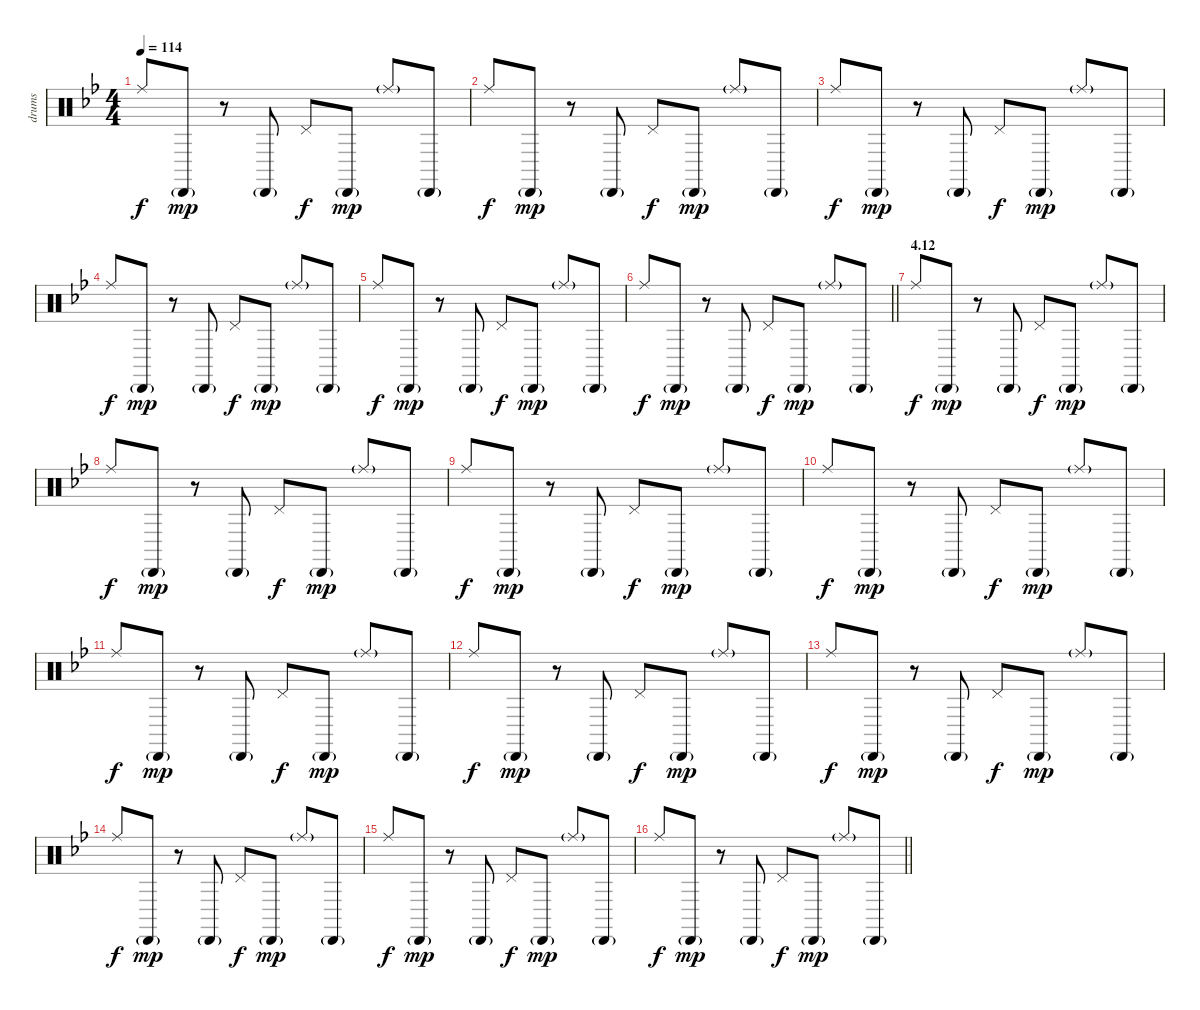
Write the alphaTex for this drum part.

\track ("drums" "drums") {instrument percussion}
\staff {score}
\articulation defaults
\ts (4 4)
\tempo 114
\clef neutral
\ks bb "Ride (middle)".8{dy f} "Cabasa (hit)"{g}.8{dy mp}
r.8 "Cabasa (hit)"{g}.8 "Pedal Hi-Hat (hit)".8{dy f} "Cabasa (hit)"{g}.8{dy mp} "Ride (middle)"{g}.8 "Cabasa (hit)"{g}.8 |
"Ride (middle)".8{dy f} "Cabasa (hit)"{g}.8{dy mp} r.8 "Cabasa (hit)"{g}.8 "Pedal Hi-Hat (hit)".8{dy f} "Cabasa (hit)"{g}.8{dy mp} "Ride (middle)"{g}.8 "Cabasa (hit)"{g}.8 |
"Ride (middle)".8{dy f} "Cabasa (hit)"{g}.8{dy mp} r.8 "Cabasa (hit)"{g}.8 "Pedal Hi-Hat (hit)".8{dy f} "Cabasa (hit)"{g}.8{dy mp} "Ride (middle)"{g}.8 "Cabasa (hit)"{g}.8 |
"Ride (middle)".8{dy f} "Cabasa (hit)"{g}.8{dy mp} r.8 "Cabasa (hit)"{g}.8 "Pedal Hi-Hat (hit)".8{dy f} "Cabasa (hit)"{g}.8{dy mp} "Ride (middle)"{g}.8 "Cabasa (hit)"{g}.8 |
"Ride (middle)".8{dy f} "Cabasa (hit)"{g}.8{dy mp} r.8 "Cabasa (hit)"{g}.8 "Pedal Hi-Hat (hit)".8{dy f} "Cabasa (hit)"{g}.8{dy mp} "Ride (middle)"{g}.8 "Cabasa (hit)"{g}.8 |
\barLineRight lightlight "Ride (middle)".8{dy f} "Cabasa (hit)"{g}.8{dy mp}
r.8 "Cabasa (hit)"{g}.8 "Pedal Hi-Hat (hit)".8{dy f} "Cabasa (hit)"{g}.8{dy mp} "Ride (middle)"{g}.8 "Cabasa (hit)"{g}.8 |
\section ("" "4.12")
"Ride (middle)".8{dy f} "Cabasa (hit)"{g}.8{dy mp} r.8 "Cabasa (hit)"{g}.8 "Pedal Hi-Hat (hit)".8{dy f} "Cabasa (hit)"{g}.8{dy mp} "Ride (middle)"{g}.8 "Cabasa (hit)"{g}.8 |
"Ride (middle)".8{dy f} "Cabasa (hit)"{g}.8{dy mp} r.8 "Cabasa (hit)"{g}.8 "Pedal Hi-Hat (hit)".8{dy f} "Cabasa (hit)"{g}.8{dy mp} "Ride (middle)"{g}.8 "Cabasa (hit)"{g}.8 |
"Ride (middle)".8{dy f} "Cabasa (hit)"{g}.8{dy mp} r.8 "Cabasa (hit)"{g}.8 "Pedal Hi-Hat (hit)".8{dy f} "Cabasa (hit)"{g}.8{dy mp} "Ride (middle)"{g}.8 "Cabasa (hit)"{g}.8 |
"Ride (middle)".8{dy f} "Cabasa (hit)"{g}.8{dy mp} r.8 "Cabasa (hit)"{g}.8 "Pedal Hi-Hat (hit)".8{dy f} "Cabasa (hit)"{g}.8{dy mp} "Ride (middle)"{g}.8 "Cabasa (hit)"{g}.8 |
"Ride (middle)".8{dy f} "Cabasa (hit)"{g}.8{dy mp} r.8 "Cabasa (hit)"{g}.8 "Pedal Hi-Hat (hit)".8{dy f} "Cabasa (hit)"{g}.8{dy mp} "Ride (middle)"{g}.8 "Cabasa (hit)"{g}.8 |
"Ride (middle)".8{dy f} "Cabasa (hit)"{g}.8{dy mp} r.8 "Cabasa (hit)"{g}.8 "Pedal Hi-Hat (hit)".8{dy f} "Cabasa (hit)"{g}.8{dy mp} "Ride (middle)"{g}.8 "Cabasa (hit)"{g}.8 |
"Ride (middle)".8{dy f} "Cabasa (hit)"{g}.8{dy mp} r.8 "Cabasa (hit)"{g}.8 "Pedal Hi-Hat (hit)".8{dy f} "Cabasa (hit)"{g}.8{dy mp} "Ride (middle)"{g}.8 "Cabasa (hit)"{g}.8 |
"Ride (middle)".8{dy f} "Cabasa (hit)"{g}.8{dy mp} r.8 "Cabasa (hit)"{g}.8 "Pedal Hi-Hat (hit)".8{dy f} "Cabasa (hit)"{g}.8{dy mp} "Ride (middle)"{g}.8 "Cabasa (hit)"{g}.8 |
"Ride (middle)".8{dy f} "Cabasa (hit)"{g}.8{dy mp} r.8 "Cabasa (hit)"{g}.8 "Pedal Hi-Hat (hit)".8{dy f} "Cabasa (hit)"{g}.8{dy mp} "Ride (middle)"{g}.8 "Cabasa (hit)"{g}.8 |
\barLineRight lightlight "Ride (middle)".8{dy f} "Cabasa (hit)"{g}.8{dy mp}
r.8 "Cabasa (hit)"{g}.8 "Pedal Hi-Hat (hit)".8{dy f} "Cabasa (hit)"{g}.8{dy mp} "Ride (middle)"{g}.8 "Cabasa (hit)"{g}.8
